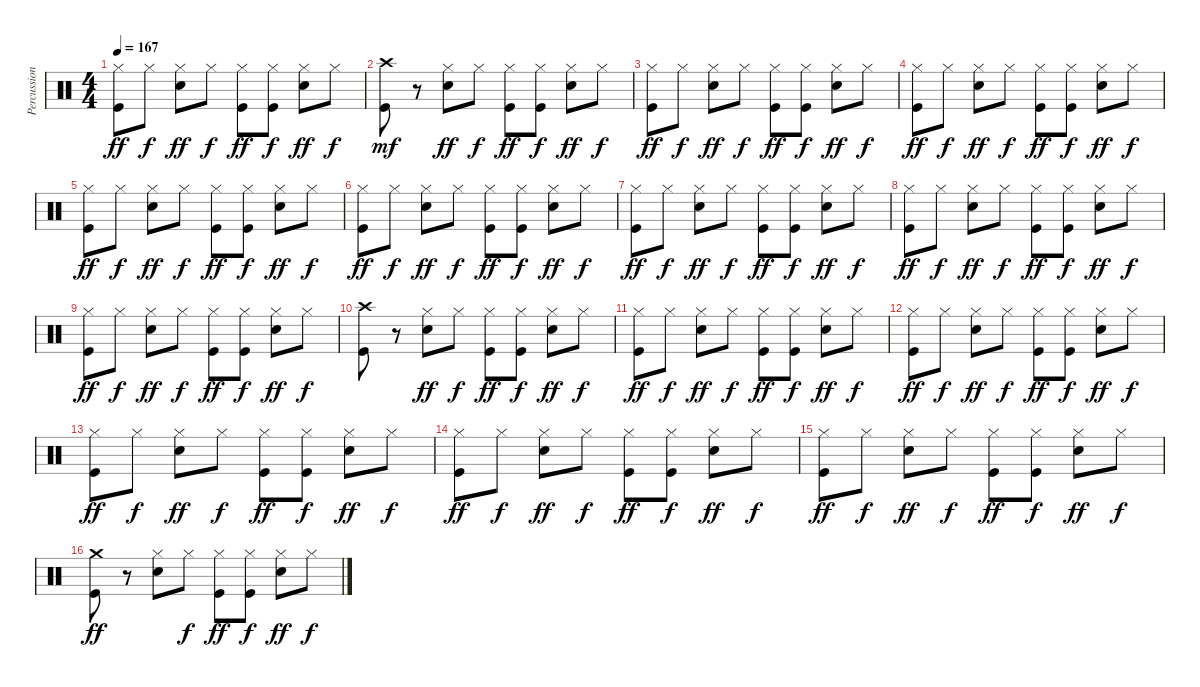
\track ("Percussion" "Percussion") {instrument percussion}
\staff {score}
\articulation defaults
\ts (4 4)
\tempo 167
\clef neutral
\ks c
("Hi-Hat (closed)" "Kick (hit)").8{dy ff} "Hi-Hat (closed)".8{dy f} ("Hi-Hat (closed)" "Electric Snare (hit)").8{dy ff} "Hi-Hat (closed)".8{dy f} ("Hi-Hat (closed)" "Kick (hit)").8{dy ff} ("Hi-Hat (closed)" "Kick (hit)").8{dy f} ("Hi-Hat (closed)" "Electric Snare (hit)").8{dy ff} "Hi-Hat (closed)".8{dy f} |
("Crash high (hit)" "Kick (hit)").8{dy mf} r.8 ("Hi-Hat (closed)" "Electric Snare (hit)").8{dy ff} "Hi-Hat (closed)".8{dy f} ("Hi-Hat (closed)" "Kick (hit)").8{dy ff} ("Hi-Hat (closed)" "Kick (hit)").8{dy f} ("Hi-Hat (closed)" "Electric Snare (hit)").8{dy ff} "Hi-Hat (closed)".8{dy f} |
("Hi-Hat (closed)" "Kick (hit)").8{dy ff} "Hi-Hat (closed)".8{dy f} ("Hi-Hat (closed)" "Electric Snare (hit)").8{dy ff} "Hi-Hat (closed)".8{dy f} ("Hi-Hat (closed)" "Kick (hit)").8{dy ff} ("Hi-Hat (closed)" "Kick (hit)").8{dy f} ("Hi-Hat (closed)" "Electric Snare (hit)").8{dy ff} "Hi-Hat (closed)".8{dy f} |
("Hi-Hat (closed)" "Kick (hit)").8{dy ff} "Hi-Hat (closed)".8{dy f} ("Hi-Hat (closed)" "Electric Snare (hit)").8{dy ff} "Hi-Hat (closed)".8{dy f} ("Hi-Hat (closed)" "Kick (hit)").8{dy ff} ("Hi-Hat (closed)" "Kick (hit)").8{dy f} ("Hi-Hat (closed)" "Electric Snare (hit)").8{dy ff} "Hi-Hat (closed)".8{dy f} |
("Hi-Hat (closed)" "Kick (hit)").8{dy ff} "Hi-Hat (closed)".8{dy f} ("Hi-Hat (closed)" "Electric Snare (hit)").8{dy ff} "Hi-Hat (closed)".8{dy f} ("Hi-Hat (closed)" "Kick (hit)").8{dy ff} ("Hi-Hat (closed)" "Kick (hit)").8{dy f} ("Hi-Hat (closed)" "Electric Snare (hit)").8{dy ff} "Hi-Hat (closed)".8{dy f} |
("Hi-Hat (closed)" "Kick (hit)").8{dy ff} "Hi-Hat (closed)".8{dy f} ("Hi-Hat (closed)" "Electric Snare (hit)").8{dy ff} "Hi-Hat (closed)".8{dy f} ("Hi-Hat (closed)" "Kick (hit)").8{dy ff} ("Hi-Hat (closed)" "Kick (hit)").8{dy f} ("Hi-Hat (closed)" "Electric Snare (hit)").8{dy ff} "Hi-Hat (closed)".8{dy f} |
("Hi-Hat (closed)" "Kick (hit)").8{dy ff} "Hi-Hat (closed)".8{dy f} ("Hi-Hat (closed)" "Electric Snare (hit)").8{dy ff} "Hi-Hat (closed)".8{dy f} ("Hi-Hat (closed)" "Kick (hit)").8{dy ff} ("Hi-Hat (closed)" "Kick (hit)").8{dy f} ("Hi-Hat (closed)" "Electric Snare (hit)").8{dy ff} "Hi-Hat (closed)".8{dy f} |
("Hi-Hat (closed)" "Kick (hit)").8{dy ff} "Hi-Hat (closed)".8{dy f} ("Hi-Hat (closed)" "Electric Snare (hit)").8{dy ff} "Hi-Hat (closed)".8{dy f} ("Hi-Hat (closed)" "Kick (hit)").8{dy ff} ("Hi-Hat (closed)" "Kick (hit)").8{dy f} ("Hi-Hat (closed)" "Electric Snare (hit)").8{dy ff} "Hi-Hat (closed)".8{dy f} |
("Hi-Hat (closed)" "Kick (hit)").8{dy ff} "Hi-Hat (closed)".8{dy f} ("Hi-Hat (closed)" "Electric Snare (hit)").8{dy ff} "Hi-Hat (closed)".8{dy f} ("Hi-Hat (closed)" "Kick (hit)").8{dy ff} ("Hi-Hat (closed)" "Kick (hit)").8{dy f} ("Hi-Hat (closed)" "Electric Snare (hit)").8{dy ff} "Hi-Hat (closed)".8{dy f} |
("Crash high (hit)" "Kick (hit)").8 r.8 ("Hi-Hat (closed)" "Electric Snare (hit)").8{dy ff} "Hi-Hat (closed)".8{dy f} ("Hi-Hat (closed)" "Kick (hit)").8{dy ff} ("Hi-Hat (closed)" "Kick (hit)").8{dy f} ("Hi-Hat (closed)" "Electric Snare (hit)").8{dy ff} "Hi-Hat (closed)".8{dy f} |
("Hi-Hat (closed)" "Kick (hit)").8{dy ff} "Hi-Hat (closed)".8{dy f} ("Hi-Hat (closed)" "Electric Snare (hit)").8{dy ff} "Hi-Hat (closed)".8{dy f} ("Hi-Hat (closed)" "Kick (hit)").8{dy ff} ("Hi-Hat (closed)" "Kick (hit)").8{dy f} ("Hi-Hat (closed)" "Electric Snare (hit)").8{dy ff} "Hi-Hat (closed)".8{dy f} |
("Hi-Hat (closed)" "Kick (hit)").8{dy ff} "Hi-Hat (closed)".8{dy f} ("Hi-Hat (closed)" "Electric Snare (hit)").8{dy ff} "Hi-Hat (closed)".8{dy f} ("Hi-Hat (closed)" "Kick (hit)").8{dy ff} ("Hi-Hat (closed)" "Kick (hit)").8{dy f} ("Hi-Hat (closed)" "Electric Snare (hit)").8{dy ff} "Hi-Hat (closed)".8{dy f} |
("Hi-Hat (closed)" "Kick (hit)").8{dy ff} "Hi-Hat (closed)".8{dy f} ("Hi-Hat (closed)" "Electric Snare (hit)").8{dy ff} "Hi-Hat (closed)".8{dy f} ("Hi-Hat (closed)" "Kick (hit)").8{dy ff} ("Hi-Hat (closed)" "Kick (hit)").8{dy f} ("Hi-Hat (closed)" "Electric Snare (hit)").8{dy ff} "Hi-Hat (closed)".8{dy f} |
("Hi-Hat (closed)" "Kick (hit)").8{dy ff} "Hi-Hat (closed)".8{dy f} ("Hi-Hat (closed)" "Electric Snare (hit)").8{dy ff} "Hi-Hat (closed)".8{dy f} ("Hi-Hat (closed)" "Kick (hit)").8{dy ff} ("Hi-Hat (closed)" "Kick (hit)").8{dy f} ("Hi-Hat (closed)" "Electric Snare (hit)").8{dy ff} "Hi-Hat (closed)".8{dy f} |
("Hi-Hat (closed)" "Kick (hit)").8{dy ff} "Hi-Hat (closed)".8{dy f} ("Hi-Hat (closed)" "Electric Snare (hit)").8{dy ff} "Hi-Hat (closed)".8{dy f} ("Hi-Hat (closed)" "Kick (hit)").8{dy ff} ("Hi-Hat (closed)" "Kick (hit)").8{dy f} ("Hi-Hat (closed)" "Electric Snare (hit)").8{dy ff} "Hi-Hat (closed)".8{dy f} |
("Crash medium (hit)" "Kick (hit)").8{dy ff} r.8 ("Hi-Hat (closed)" "Electric Snare (hit)").8 "Hi-Hat (closed)".8{dy f} ("Hi-Hat (closed)" "Kick (hit)").8{dy ff} ("Hi-Hat (closed)" "Kick (hit)").8{dy f} ("Hi-Hat (closed)" "Electric Snare (hit)").8{dy ff} "Hi-Hat (closed)".8{dy f}
